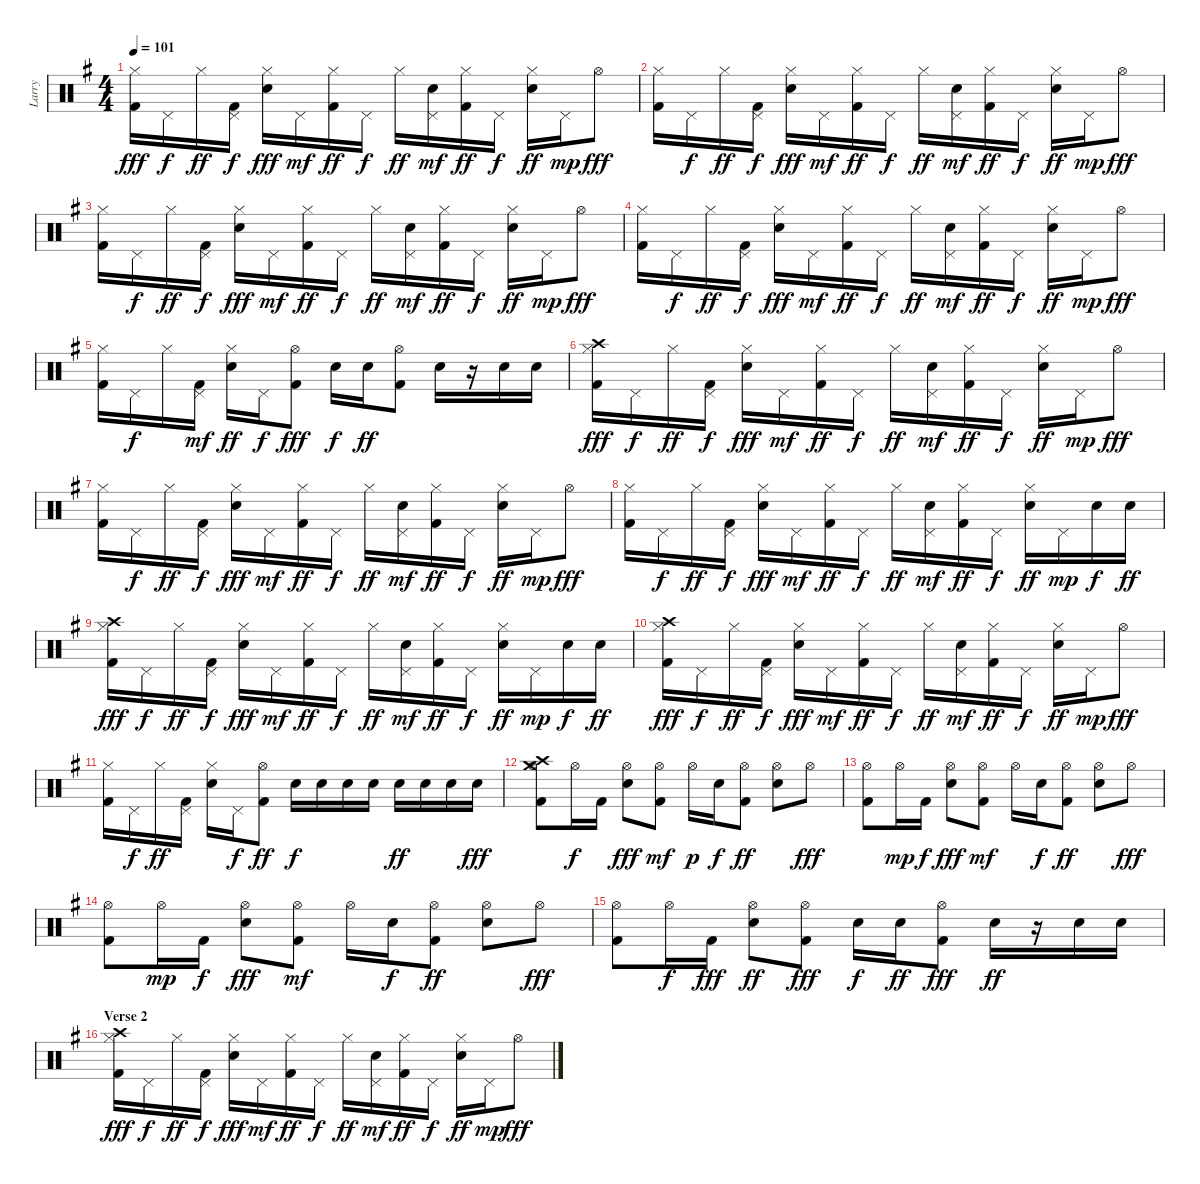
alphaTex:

\track ("Larry" "Larry") {instrument percussion}
\staff {score}
\articulation defaults
\ts (4 4)
\tempo 101
\clef neutral
\ks eminor
("Hi-Hat (closed)" "Kick (hit) 2").16{dy fff} "Pedal Hi-Hat (hit)".16{dy f} "Hi-Hat (closed)".16{dy ff} ("Kick (hit) 2" "Pedal Hi-Hat (hit)").16{dy f} ("Hi-Hat (closed)" "Snare (hit) 2").16{dy fff} "Pedal Hi-Hat (hit)".16{dy mf} ("Hi-Hat (closed)" "Kick (hit) 2").16{dy ff} "Pedal Hi-Hat (hit)".16{dy f} "Hi-Hat (closed)".16{dy ff} ("Snare (hit) 2" "Pedal Hi-Hat (hit)").16{dy mf} ("Hi-Hat (closed)" "Kick (hit) 2").16{dy ff} "Pedal Hi-Hat (hit)".16{dy f} ("Hi-Hat (closed)" "Snare (hit) 2").16{dy ff} "Pedal Hi-Hat (hit)".16{dy mp} "Hi-Hat (open)".8{dy fff} |
("Hi-Hat (closed)" "Kick (hit) 2").16 "Pedal Hi-Hat (hit)".16{dy f} "Hi-Hat (closed)".16{dy ff} ("Kick (hit) 2" "Pedal Hi-Hat (hit)").16{dy f} ("Hi-Hat (closed)" "Snare (hit) 2").16{dy fff} "Pedal Hi-Hat (hit)".16{dy mf} ("Hi-Hat (closed)" "Kick (hit) 2").16{dy ff} "Pedal Hi-Hat (hit)".16{dy f} "Hi-Hat (closed)".16{dy ff} ("Snare (hit) 2" "Pedal Hi-Hat (hit)").16{dy mf} ("Hi-Hat (closed)" "Kick (hit) 2").16{dy ff} "Pedal Hi-Hat (hit)".16{dy f} ("Hi-Hat (closed)" "Snare (hit) 2").16{dy ff} "Pedal Hi-Hat (hit)".16{dy mp} "Hi-Hat (open)".8{dy fff} |
("Hi-Hat (closed)" "Kick (hit) 2").16 "Pedal Hi-Hat (hit)".16{dy f} "Hi-Hat (closed)".16{dy ff} ("Kick (hit) 2" "Pedal Hi-Hat (hit)").16{dy f} ("Hi-Hat (closed)" "Snare (hit) 2").16{dy fff} "Pedal Hi-Hat (hit)".16{dy mf} ("Hi-Hat (closed)" "Kick (hit) 2").16{dy ff} "Pedal Hi-Hat (hit)".16{dy f} "Hi-Hat (closed)".16{dy ff} ("Snare (hit) 2" "Pedal Hi-Hat (hit)").16{dy mf} ("Hi-Hat (closed)" "Kick (hit) 2").16{dy ff} "Pedal Hi-Hat (hit)".16{dy f} ("Hi-Hat (closed)" "Snare (hit) 2").16{dy ff} "Pedal Hi-Hat (hit)".16{dy mp} "Hi-Hat (open)".8{dy fff} |
("Hi-Hat (closed)" "Kick (hit) 2").16 "Pedal Hi-Hat (hit)".16{dy f} "Hi-Hat (closed)".16{dy ff} ("Kick (hit) 2" "Pedal Hi-Hat (hit)").16{dy f} ("Hi-Hat (closed)" "Snare (hit) 2").16{dy fff} "Pedal Hi-Hat (hit)".16{dy mf} ("Hi-Hat (closed)" "Kick (hit) 2").16{dy ff} "Pedal Hi-Hat (hit)".16{dy f} "Hi-Hat (closed)".16{dy ff} ("Snare (hit) 2" "Pedal Hi-Hat (hit)").16{dy mf} ("Hi-Hat (closed)" "Kick (hit) 2").16{dy ff} "Pedal Hi-Hat (hit)".16{dy f} ("Hi-Hat (closed)" "Snare (hit) 2").16{dy ff} "Pedal Hi-Hat (hit)".16{dy mp} "Hi-Hat (open)".8{dy fff} |
("Kick (hit) 2" "Hi-Hat (closed)").16 "Pedal Hi-Hat (hit)".16{dy f} "Hi-Hat (closed)".16 ("Kick (hit) 2" "Pedal Hi-Hat (hit)").16{dy mf} ("Hi-Hat (closed)" "Snare (hit) 2").16{dy ff} "Pedal Hi-Hat (hit)".16{dy f} ("Kick (hit) 2" "Hi-Hat (open)").8{dy fff} "Snare (hit) 2".16{dy f} "Snare (hit) 2".16{dy ff} ("Kick (hit) 2" "Hi-Hat (open)").8 "Snare (hit) 2".16 r.16 "Snare (hit) 2".16 "Snare (hit) 2".16 |
("Hi-Hat (closed)" "Kick (hit) 2" "Crash high (hit)").16{dy fff} "Pedal Hi-Hat (hit)".16{dy f} "Hi-Hat (closed)".16{dy ff} ("Kick (hit) 2" "Pedal Hi-Hat (hit)").16{dy f} ("Hi-Hat (closed)" "Snare (hit) 2").16{dy fff} "Pedal Hi-Hat (hit)".16{dy mf} ("Hi-Hat (closed)" "Kick (hit) 2").16{dy ff} "Pedal Hi-Hat (hit)".16{dy f} "Hi-Hat (closed)".16{dy ff} ("Snare (hit) 2" "Pedal Hi-Hat (hit)").16{dy mf} ("Hi-Hat (closed)" "Kick (hit) 2").16{dy ff} "Pedal Hi-Hat (hit)".16{dy f} ("Hi-Hat (closed)" "Snare (hit) 2").16{dy ff} "Pedal Hi-Hat (hit)".16{dy mp} "Hi-Hat (open)".8{dy fff} |
("Hi-Hat (closed)" "Kick (hit) 2").16 "Pedal Hi-Hat (hit)".16{dy f} "Hi-Hat (closed)".16{dy ff} ("Kick (hit) 2" "Pedal Hi-Hat (hit)").16{dy f} ("Hi-Hat (closed)" "Snare (hit) 2").16{dy fff} "Pedal Hi-Hat (hit)".16{dy mf} ("Hi-Hat (closed)" "Kick (hit) 2").16{dy ff} "Pedal Hi-Hat (hit)".16{dy f} "Hi-Hat (closed)".16{dy ff} ("Snare (hit) 2" "Pedal Hi-Hat (hit)").16{dy mf} ("Hi-Hat (closed)" "Kick (hit) 2").16{dy ff} "Pedal Hi-Hat (hit)".16{dy f} ("Hi-Hat (closed)" "Snare (hit) 2").16{dy ff} "Pedal Hi-Hat (hit)".16{dy mp} "Hi-Hat (open)".8{dy fff} |
("Hi-Hat (closed)" "Kick (hit) 2").16 "Pedal Hi-Hat (hit)".16{dy f} "Hi-Hat (closed)".16{dy ff} ("Kick (hit) 2" "Pedal Hi-Hat (hit)").16{dy f} ("Hi-Hat (closed)" "Snare (hit) 2").16{dy fff} "Pedal Hi-Hat (hit)".16{dy mf} ("Hi-Hat (closed)" "Kick (hit) 2").16{dy ff} "Pedal Hi-Hat (hit)".16{dy f} "Hi-Hat (closed)".16{dy ff} ("Snare (hit) 2" "Pedal Hi-Hat (hit)").16{dy mf} ("Hi-Hat (closed)" "Kick (hit) 2").16{dy ff} "Pedal Hi-Hat (hit)".16{dy f} ("Hi-Hat (closed)" "Snare (hit) 2").16{dy ff} "Pedal Hi-Hat (hit)".16{dy mp} "Snare (hit) 2".16{dy f} "Snare (hit) 2".16{dy ff} |
("Hi-Hat (closed)" "Kick (hit) 2" "Crash high (hit)").16{dy fff} "Pedal Hi-Hat (hit)".16{dy f} "Hi-Hat (closed)".16{dy ff} ("Kick (hit) 2" "Pedal Hi-Hat (hit)").16{dy f} ("Hi-Hat (closed)" "Snare (hit) 2").16{dy fff} "Pedal Hi-Hat (hit)".16{dy mf} ("Hi-Hat (closed)" "Kick (hit) 2").16{dy ff} "Pedal Hi-Hat (hit)".16{dy f} "Hi-Hat (closed)".16{dy ff} ("Snare (hit) 2" "Pedal Hi-Hat (hit)").16{dy mf} ("Hi-Hat (closed)" "Kick (hit) 2").16{dy ff} "Pedal Hi-Hat (hit)".16{dy f} ("Hi-Hat (closed)" "Snare (hit) 2").16{dy ff} "Pedal Hi-Hat (hit)".16{dy mp} "Snare (hit) 2".16{dy f} "Snare (hit) 2".16{dy ff} |
("Hi-Hat (closed)" "Kick (hit) 2" "Crash high (hit)").16{dy fff} "Pedal Hi-Hat (hit)".16{dy f} "Hi-Hat (closed)".16{dy ff} ("Kick (hit) 2" "Pedal Hi-Hat (hit)").16{dy f} ("Hi-Hat (closed)" "Snare (hit) 2").16{dy fff} "Pedal Hi-Hat (hit)".16{dy mf} ("Hi-Hat (closed)" "Kick (hit) 2").16{dy ff} "Pedal Hi-Hat (hit)".16{dy f} "Hi-Hat (closed)".16{dy ff} ("Snare (hit) 2" "Pedal Hi-Hat (hit)").16{dy mf} ("Hi-Hat (closed)" "Kick (hit) 2").16{dy ff} "Pedal Hi-Hat (hit)".16{dy f} ("Hi-Hat (closed)" "Snare (hit) 2").16{dy ff} "Pedal Hi-Hat (hit)".16{dy mp} "Hi-Hat (open)".8{dy fff} |
("Hi-Hat (closed)" "Kick (hit) 2").16 "Pedal Hi-Hat (hit)".16{dy f} "Hi-Hat (closed)".16{dy ff} ("Kick (hit) 2" "Pedal Hi-Hat (hit)").16 ("Hi-Hat (closed)" "Snare (hit) 2").16 "Pedal Hi-Hat (hit)".16{dy f} ("Hi-Hat (open)" "Kick (hit) 2").8{dy ff} "Snare (hit) 2".16{dy f} "Snare (hit) 2".16 "Snare (hit) 2".16 "Snare (hit) 2".16 "Snare (hit) 2".16{dy ff} "Snare (hit) 2".16 "Snare (hit) 2".16 "Snare (hit) 2".16{dy fff} |
("Hi-Hat (open)" "Crash high (hit)" "Crash medium (hit)" "Kick (hit) 2").8 "Hi-Hat (open)".16{dy f} "Kick (hit) 2".16 ("Hi-Hat (open)" "Snare (hit) 2").8{dy fff} ("Hi-Hat (open)" "Kick (hit) 2").8{dy mf} "Hi-Hat (open)".16{dy p} "Snare (hit) 2".16{dy f} ("Hi-Hat (open)" "Kick (hit) 2").8{dy ff} ("Hi-Hat (open)" "Snare (hit) 2").8 "Hi-Hat (open)".8{dy fff} |
("Hi-Hat (open)" "Kick (hit) 2").8 "Hi-Hat (open)".16{dy mp} "Kick (hit) 2".16{dy f} ("Hi-Hat (open)" "Snare (hit) 2").8{dy fff} ("Hi-Hat (open)" "Kick (hit) 2").8{dy mf} "Hi-Hat (open)".16 "Snare (hit) 2".16{dy f} ("Hi-Hat (open)" "Kick (hit) 2").8{dy ff} ("Hi-Hat (open)" "Snare (hit) 2").8 "Hi-Hat (open)".8{dy fff} |
("Hi-Hat (open)" "Kick (hit) 2").8 "Hi-Hat (open)".16{dy mp} "Kick (hit) 2".16{dy f} ("Hi-Hat (open)" "Snare (hit) 2").8{dy fff} ("Hi-Hat (open)" "Kick (hit) 2").8{dy mf} "Hi-Hat (open)".16 "Snare (hit) 2".16{dy f} ("Hi-Hat (open)" "Kick (hit) 2").8{dy ff} ("Hi-Hat (open)" "Snare (hit) 2").8 "Hi-Hat (open)".8{dy fff} |
("Hi-Hat (open)" "Kick (hit) 2").8 "Hi-Hat (open)".16{dy f} "Kick (hit) 2".16{dy fff} ("Hi-Hat (open)" "Snare (hit) 2").8{dy ff} ("Hi-Hat (open)" "Kick (hit) 2").8{dy fff} "Snare (hit) 2".16{dy f} "Snare (hit) 2".16{dy ff} ("Hi-Hat (open)" "Kick (hit) 2").8{dy fff} "Snare (hit) 2".16{dy ff} r.16 "Snare (hit) 2".16 "Snare (hit) 2".16 |
\section ("" "Verse 2")
("Hi-Hat (closed)" "Kick (hit) 2" "Crash high (hit)").16{dy fff} "Pedal Hi-Hat (hit)".16{dy f} "Hi-Hat (closed)".16{dy ff} ("Kick (hit) 2" "Pedal Hi-Hat (hit)").16{dy f} ("Hi-Hat (closed)" "Snare (hit) 2").16{dy fff} "Pedal Hi-Hat (hit)".16{dy mf} ("Hi-Hat (closed)" "Kick (hit) 2").16{dy ff} "Pedal Hi-Hat (hit)".16{dy f} "Hi-Hat (closed)".16{dy ff} ("Snare (hit) 2" "Pedal Hi-Hat (hit)").16{dy mf} ("Hi-Hat (closed)" "Kick (hit) 2").16{dy ff} "Pedal Hi-Hat (hit)".16{dy f} ("Hi-Hat (closed)" "Snare (hit) 2").16{dy ff} "Pedal Hi-Hat (hit)".16{dy mp} "Hi-Hat (open)".8{dy fff}
